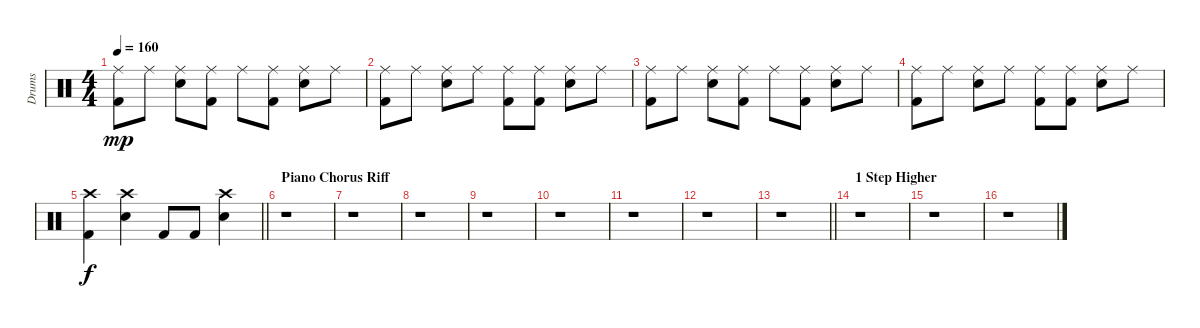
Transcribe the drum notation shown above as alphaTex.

\track ("Drums" "Drums") {instrument percussion}
\staff {score}
\articulation defaults
\ts (4 4)
\tempo 160
\clef neutral
\ks c
("Ride (middle)" "Kick (hit) 2").8{dy mp} "Ride (middle)".8 ("Ride (middle)" "Electric Snare (hit)").8 ("Ride (middle)" "Kick (hit) 2").8 "Ride (middle)".8 ("Ride (middle)" "Kick (hit) 2").8 ("Ride (middle)" "Electric Snare (hit)").8 "Ride (middle)".8 |
("Ride (middle)" "Kick (hit) 2").8 "Ride (middle)".8 ("Ride (middle)" "Electric Snare (hit)").8 "Ride (middle)".8 ("Ride (middle)" "Kick (hit) 2").8 ("Ride (middle)" "Kick (hit) 2").8 ("Ride (middle)" "Electric Snare (hit)").8 "Ride (middle)".8 |
("Ride (middle)" "Kick (hit) 2").8 "Ride (middle)".8 ("Ride (middle)" "Electric Snare (hit)").8 ("Ride (middle)" "Kick (hit) 2").8 "Ride (middle)".8 ("Ride (middle)" "Kick (hit) 2").8 ("Ride (middle)" "Electric Snare (hit)").8 "Ride (middle)".8 |
("Ride (middle)" "Kick (hit) 2").8 "Ride (middle)".8 ("Ride (middle)" "Electric Snare (hit)").8 "Ride (middle)".8 ("Ride (middle)" "Kick (hit) 2").8 ("Ride (middle)" "Kick (hit) 2").8 ("Ride (middle)" "Electric Snare (hit)").8 "Ride (middle)".8 |
\barLineRight lightlight
("Crash high (hit)" "Kick (hit) 2").4{dy f} ("Crash high (hit)" "Electric Snare (hit)").4 "Kick (hit) 2".8 "Kick (hit) 2".8 ("Crash high (hit)" "Electric Snare (hit)").4 |
\section ("" "Piano Chorus Riff")
r.1 |
r.1 |
r.1 |
r.1 |
r.1 |
r.1 |
r.1 |
\barLineRight lightlight
r.1 |
\section ("" "1 Step Higher")
r.1 |
r.1 |
r.1
